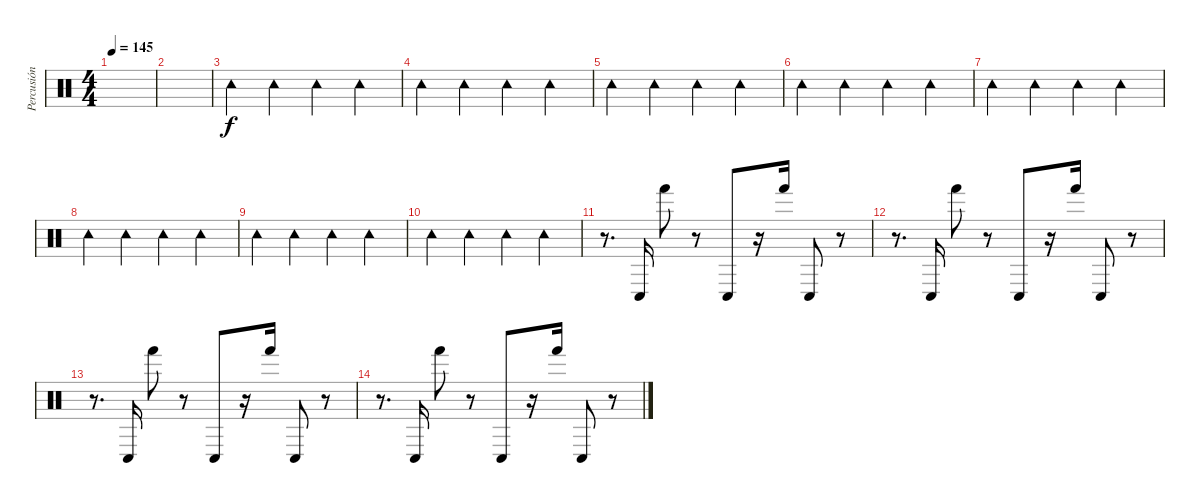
\track ("Percusión" "Percusión") {instrument percussion}
\staff {score}
\articulation defaults
\ts (4 4)
\tempo 145
\clef neutral
\ks c
|
|
"Tambourine (hit)".4 "Tambourine (hit)".4 "Tambourine (hit)".4 "Tambourine (hit)".4 |
"Tambourine (hit)".4 "Tambourine (hit)".4 "Tambourine (hit)".4 "Tambourine (hit)".4 |
"Tambourine (hit)".4 "Tambourine (hit)".4 "Tambourine (hit)".4 "Tambourine (hit)".4 |
"Tambourine (hit)".4 "Tambourine (hit)".4 "Tambourine (hit)".4 "Tambourine (hit)".4 |
"Tambourine (hit)".4 "Tambourine (hit)".4 "Tambourine (hit)".4 "Tambourine (hit)".4 |
"Tambourine (hit)".4 "Tambourine (hit)".4 "Tambourine (hit)".4 "Tambourine (hit)".4 |
"Tambourine (hit)".4 "Tambourine (hit)".4 "Tambourine (hit)".4 "Tambourine (hit)".4 |
"Tambourine (hit)".4 "Tambourine (hit)".4 "Tambourine (hit)".4 "Tambourine (hit)".4 |
r.8{d} "Conga low (hit)".16 "Hand (hit)".8 r.8 "Conga low (hit)".8 r.16 "Hand (hit)".16 "Conga low (hit)".8 r.8 |
r.8{d} "Conga low (hit)".16 "Hand (hit)".8 r.8 "Conga low (hit)".8 r.16 "Hand (hit)".16 "Conga low (hit)".8 r.8 |
r.8{d} "Conga low (hit)".16 "Hand (hit)".8 r.8 "Conga low (hit)".8 r.16 "Hand (hit)".16 "Conga low (hit)".8 r.8 |
r.8{d} "Conga low (hit)".16 "Hand (hit)".8 r.8 "Conga low (hit)".8 r.16 "Hand (hit)".16 "Conga low (hit)".8 r.8
